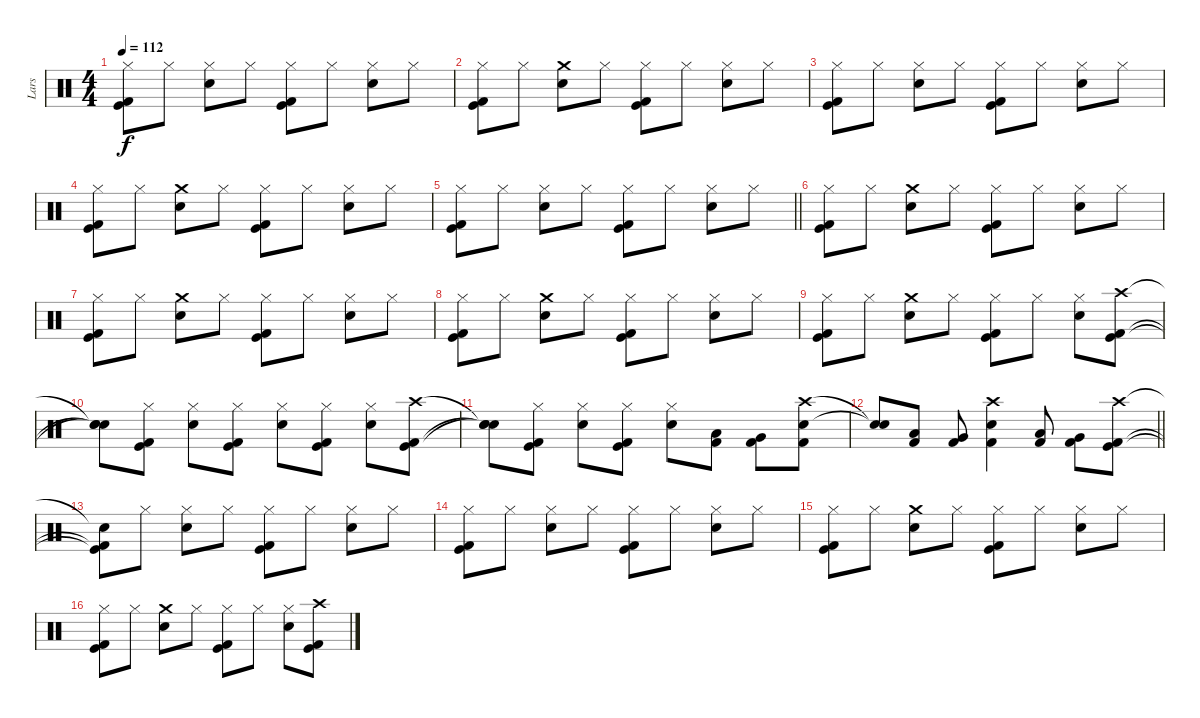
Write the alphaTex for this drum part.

\track ("Lars" "Lars") {instrument percussion}
\staff {score}
\articulation defaults
\ts (4 4)
\tempo 112
\clef neutral
\ks c
("Hi-Hat (closed)" "Kick (hit)" "Kick (hit) 2").8{dy f} "Hi-Hat (closed)".8 ("Hi-Hat (closed)" "Electric Snare (hit)").8 "Hi-Hat (closed)".8 ("Hi-Hat (closed)" "Kick (hit)" "Kick (hit) 2").8 "Hi-Hat (closed)".8 ("Hi-Hat (closed)" "Electric Snare (hit)").8 "Hi-Hat (closed)".8 |
("Hi-Hat (closed)" "Kick (hit)" "Kick (hit) 2").8 "Hi-Hat (closed)".8 ("Crash medium (hit)" "Electric Snare (hit)").8 "Hi-Hat (closed)".8 ("Hi-Hat (closed)" "Kick (hit)" "Kick (hit) 2").8 "Hi-Hat (closed)".8 ("Hi-Hat (closed)" "Electric Snare (hit)").8 "Hi-Hat (closed)".8 |
("Hi-Hat (closed)" "Kick (hit)" "Kick (hit) 2").8 "Hi-Hat (closed)".8 ("Hi-Hat (closed)" "Electric Snare (hit)").8 "Hi-Hat (closed)".8 ("Hi-Hat (closed)" "Kick (hit)" "Kick (hit) 2").8 "Hi-Hat (closed)".8 ("Hi-Hat (closed)" "Electric Snare (hit)").8 "Hi-Hat (closed)".8 |
("Hi-Hat (closed)" "Kick (hit)" "Kick (hit) 2").8 "Hi-Hat (closed)".8 ("Crash medium (hit)" "Electric Snare (hit)").8 "Hi-Hat (closed)".8 ("Hi-Hat (closed)" "Kick (hit)" "Kick (hit) 2").8 "Hi-Hat (closed)".8 ("Hi-Hat (closed)" "Electric Snare (hit)").8 "Hi-Hat (closed)".8 |
\barLineRight lightlight
("Hi-Hat (closed)" "Kick (hit)" "Kick (hit) 2").8 "Hi-Hat (closed)".8 ("Hi-Hat (closed)" "Electric Snare (hit)").8 "Hi-Hat (closed)".8 ("Hi-Hat (closed)" "Kick (hit)" "Kick (hit) 2").8 "Hi-Hat (closed)".8 ("Hi-Hat (closed)" "Electric Snare (hit)").8 "Hi-Hat (closed)".8 |
\section ("" "")
("Hi-Hat (closed)" "Kick (hit)" "Kick (hit) 2").8 "Hi-Hat (closed)".8 ("Crash medium (hit)" "Electric Snare (hit)").8 "Hi-Hat (closed)".8 ("Hi-Hat (closed)" "Kick (hit)" "Kick (hit) 2").8 "Hi-Hat (closed)".8 ("Hi-Hat (closed)" "Electric Snare (hit)").8 "Hi-Hat (closed)".8 |
("Hi-Hat (closed)" "Kick (hit)" "Kick (hit) 2").8 "Hi-Hat (closed)".8 ("Crash medium (hit)" "Electric Snare (hit)").8 "Hi-Hat (closed)".8 ("Hi-Hat (closed)" "Kick (hit)" "Kick (hit) 2").8 "Hi-Hat (closed)".8 ("Hi-Hat (closed)" "Electric Snare (hit)").8 "Hi-Hat (closed)".8 |
("Hi-Hat (closed)" "Kick (hit)" "Kick (hit) 2").8 "Hi-Hat (closed)".8 ("Crash medium (hit)" "Electric Snare (hit)").8 "Hi-Hat (closed)".8 ("Hi-Hat (closed)" "Kick (hit)" "Kick (hit) 2").8 "Hi-Hat (closed)".8 ("Hi-Hat (closed)" "Electric Snare (hit)").8 "Hi-Hat (closed)".8 |
("Hi-Hat (closed)" "Kick (hit)" "Kick (hit) 2").8 "Hi-Hat (closed)".8 ("Crash medium (hit)" "Electric Snare (hit)").8 "Hi-Hat (closed)".8 ("Hi-Hat (closed)" "Kick (hit)" "Kick (hit) 2").8 "Hi-Hat (closed)".8 ("Hi-Hat (closed)" "Electric Snare (hit)").8 ("Crash high (hit)" "Kick (hit)" "Kick (hit) 2").8 |
("Snare (hit)"{t} "Snare (hit)"{t} "Snare (hit)"{t}).8 ("Hi-Hat (closed)" "Kick (hit)" "Kick (hit) 2").8 ("Hi-Hat (closed)" "Electric Snare (hit)").8 ("Hi-Hat (closed)" "Kick (hit)" "Kick (hit) 2").8 ("Hi-Hat (closed)" "Electric Snare (hit)").8 ("Hi-Hat (closed)" "Kick (hit)" "Kick (hit) 2").8 ("Hi-Hat (closed)" "Electric Snare (hit)").8 ("Crash high (hit)" "Kick (hit)" "Kick (hit) 2").8 |
("Snare (hit)"{t} "Snare (hit)"{t} "Snare (hit)"{t}).8 ("Hi-Hat (closed)" "Kick (hit)" "Kick (hit) 2").8 ("Hi-Hat (closed)" "Electric Snare (hit)").8 ("Hi-Hat (closed)" "Kick (hit)" "Kick (hit) 2").8 ("Hi-Hat (closed)" "Electric Snare (hit)").8 ("Kick (hit) 2" "Low Tom (hit)").8 ("Kick (hit) 2" "Very Low Tom (hit)").8 ("Crash high (hit)" "Electric Snare (hit)" "Kick (hit) 2").8 |
\barLineRight lightlight
("Snare (hit)"{t} "Snare (hit)"{t}).8 ("Kick (hit) 2" "Low Tom (hit)").8 ("Kick (hit) 2" "Very Low Tom (hit)").8 ("Crash high (hit)" "Electric Snare (hit)" "Kick (hit) 2").4 ("Kick (hit) 2" "Low Tom (hit)").8 ("Kick (hit) 2" "Very Low Tom (hit)").8 ("Crash high (hit)" "Kick (hit)" "Kick (hit) 2").8 |
\section ("" "")
("Snare (hit)"{t} "Kick (hit)"{t} "Kick (hit) 2"{t}).8 "Hi-Hat (closed)".8 ("Hi-Hat (closed)" "Electric Snare (hit)").8 "Hi-Hat (closed)".8 ("Hi-Hat (closed)" "Kick (hit)" "Kick (hit) 2").8 "Hi-Hat (closed)".8 ("Hi-Hat (closed)" "Electric Snare (hit)").8 "Hi-Hat (closed)".8 |
("Hi-Hat (closed)" "Kick (hit)" "Kick (hit) 2").8 "Hi-Hat (closed)".8 ("Hi-Hat (closed)" "Electric Snare (hit)").8 "Hi-Hat (closed)".8 ("Hi-Hat (closed)" "Kick (hit)" "Kick (hit) 2").8 "Hi-Hat (closed)".8 ("Hi-Hat (closed)" "Electric Snare (hit)").8 "Hi-Hat (closed)".8 |
("Hi-Hat (closed)" "Kick (hit)" "Kick (hit) 2").8 "Hi-Hat (closed)".8 ("Crash medium (hit)" "Electric Snare (hit)").8 "Hi-Hat (closed)".8 ("Hi-Hat (closed)" "Kick (hit)" "Kick (hit) 2").8 "Hi-Hat (closed)".8 ("Hi-Hat (closed)" "Electric Snare (hit)").8 "Hi-Hat (closed)".8 |
("Hi-Hat (closed)" "Kick (hit)" "Kick (hit) 2").8 "Hi-Hat (closed)".8 ("Crash medium (hit)" "Electric Snare (hit)").8 "Hi-Hat (closed)".8 ("Hi-Hat (closed)" "Kick (hit)" "Kick (hit) 2").8 "Hi-Hat (closed)".8 ("Hi-Hat (closed)" "Electric Snare (hit)").8 ("Crash high (hit)" "Kick (hit)" "Kick (hit) 2").8
